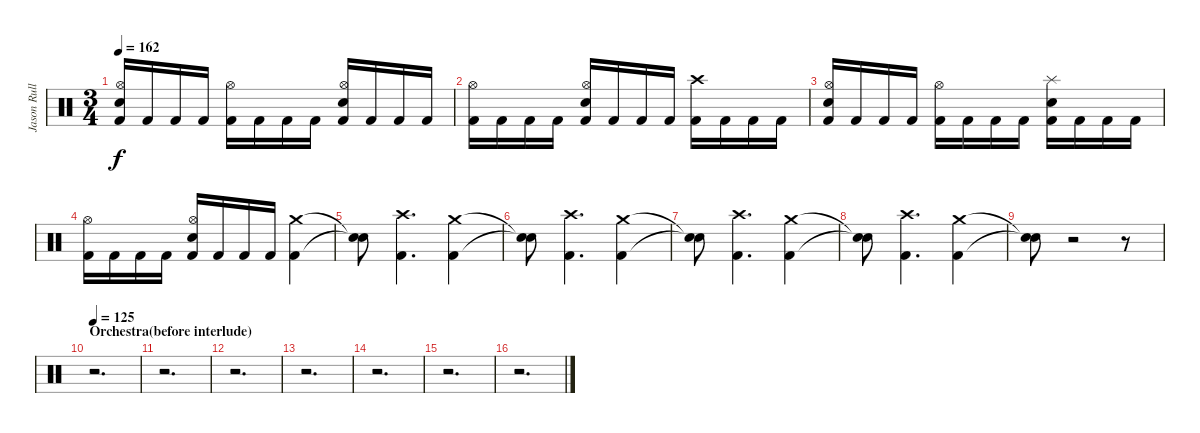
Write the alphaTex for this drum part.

\track ("Jason Rullo" "Jason Rull") {instrument percussion}
\staff {score}
\articulation defaults
\ts (3 4)
\tempo 162
\clef neutral
\ks c
("Electric Snare (hit)" "Hi-Hat (open)" "Kick (hit) 2").16{dy f} "Kick (hit) 2".16 "Kick (hit) 2".16 "Kick (hit) 2".16 ("Hi-Hat (open)" "Kick (hit) 2").16 "Kick (hit) 2".16 "Kick (hit) 2".16 "Kick (hit) 2".16 ("Electric Snare (hit)" "Hi-Hat (open)" "Kick (hit) 2").16 "Kick (hit) 2".16 "Kick (hit) 2".16 "Kick (hit) 2".16 |
("Hi-Hat (open)" "Kick (hit) 2").16 "Kick (hit) 2".16 "Kick (hit) 2".16 "Kick (hit) 2".16 ("Electric Snare (hit)" "Hi-Hat (open)" "Kick (hit) 2").16 "Kick (hit) 2".16 "Kick (hit) 2".16 "Kick (hit) 2".16 ("Crash high (hit)" "Kick (hit) 2").16 "Kick (hit) 2".16 "Kick (hit) 2".16 "Kick (hit) 2".16 |
("Electric Snare (hit)" "Hi-Hat (open)" "Kick (hit) 2").16 "Kick (hit) 2".16 "Kick (hit) 2".16 "Kick (hit) 2".16 ("Hi-Hat (open)" "Kick (hit) 2").16 "Kick (hit) 2".16 "Kick (hit) 2".16 "Kick (hit) 2".16 ("Splash (hit)" "Electric Snare (hit)" "Kick (hit) 2").16 "Kick (hit) 2".16 "Kick (hit) 2".16 "Kick (hit) 2".16 |
("Hi-Hat (open)" "Kick (hit) 2").16 "Kick (hit) 2".16 "Kick (hit) 2".16 "Kick (hit) 2".16 ("Electric Snare (hit)" "Hi-Hat (open)" "Kick (hit) 2").16 "Kick (hit) 2".16 "Kick (hit) 2".16 "Kick (hit) 2".16 ("Crash medium (hit)" "Kick (hit) 2").4 |
("Snare (hit)"{t} "Snare (hit)"{t}).8 ("Crash high (hit)" "Kick (hit) 2").4{d} ("Crash medium (hit)" "Kick (hit) 2").4 |
("Snare (hit)"{t} "Snare (hit)"{t}).8 ("Crash high (hit)" "Kick (hit) 2").4{d} ("Crash medium (hit)" "Kick (hit) 2").4 |
("Snare (hit)"{t} "Snare (hit)"{t}).8 ("Crash high (hit)" "Kick (hit) 2").4{d} ("Crash medium (hit)" "Kick (hit) 2").4 |
("Snare (hit)"{t} "Snare (hit)"{t}).8 ("Crash high (hit)" "Kick (hit) 2").4{d} ("Crash medium (hit)" "Kick (hit) 2").4 |
("Snare (hit)"{t} "Snare (hit)"{t}).8 r.2 r.8 |
\section ("" "Orchestra(before interlude)")
\tempo 125
r.2{d} |
r.2{d} |
r.2{d} |
r.2{d} |
r.2{d} |
r.2{d} |
r.2{d}
